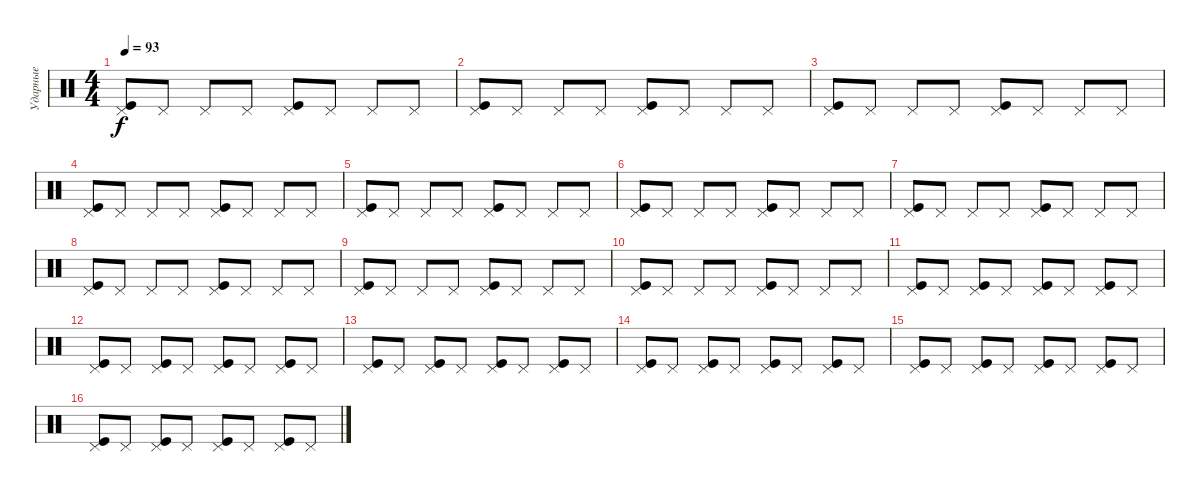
\track ("Ударные" "Ударные") {instrument percussion}
\staff {score}
\articulation defaults
\ts (4 4)
\tempo 93
\clef neutral
\ks c
("Kick (hit)" "Pedal Hi-Hat (hit)").8{dy f} "Pedal Hi-Hat (hit)".8 "Pedal Hi-Hat (hit)".8 "Pedal Hi-Hat (hit)".8 ("Kick (hit)" "Pedal Hi-Hat (hit)").8 "Pedal Hi-Hat (hit)".8 "Pedal Hi-Hat (hit)".8 "Pedal Hi-Hat (hit)".8 |
("Kick (hit)" "Pedal Hi-Hat (hit)").8 "Pedal Hi-Hat (hit)".8 "Pedal Hi-Hat (hit)".8 "Pedal Hi-Hat (hit)".8 ("Kick (hit)" "Pedal Hi-Hat (hit)").8 "Pedal Hi-Hat (hit)".8 "Pedal Hi-Hat (hit)".8 "Pedal Hi-Hat (hit)".8 |
("Kick (hit)" "Pedal Hi-Hat (hit)").8 "Pedal Hi-Hat (hit)".8 "Pedal Hi-Hat (hit)".8 "Pedal Hi-Hat (hit)".8 ("Kick (hit)" "Pedal Hi-Hat (hit)").8 "Pedal Hi-Hat (hit)".8 "Pedal Hi-Hat (hit)".8 "Pedal Hi-Hat (hit)".8 |
("Kick (hit)" "Pedal Hi-Hat (hit)").8 "Pedal Hi-Hat (hit)".8 "Pedal Hi-Hat (hit)".8 "Pedal Hi-Hat (hit)".8 ("Kick (hit)" "Pedal Hi-Hat (hit)").8 "Pedal Hi-Hat (hit)".8 "Pedal Hi-Hat (hit)".8 "Pedal Hi-Hat (hit)".8 |
("Kick (hit)" "Pedal Hi-Hat (hit)").8 "Pedal Hi-Hat (hit)".8 "Pedal Hi-Hat (hit)".8 "Pedal Hi-Hat (hit)".8 ("Kick (hit)" "Pedal Hi-Hat (hit)").8 "Pedal Hi-Hat (hit)".8 "Pedal Hi-Hat (hit)".8 "Pedal Hi-Hat (hit)".8 |
("Kick (hit)" "Pedal Hi-Hat (hit)").8 "Pedal Hi-Hat (hit)".8 "Pedal Hi-Hat (hit)".8 "Pedal Hi-Hat (hit)".8 ("Kick (hit)" "Pedal Hi-Hat (hit)").8 "Pedal Hi-Hat (hit)".8 "Pedal Hi-Hat (hit)".8 "Pedal Hi-Hat (hit)".8 |
("Kick (hit)" "Pedal Hi-Hat (hit)").8 "Pedal Hi-Hat (hit)".8 "Pedal Hi-Hat (hit)".8 "Pedal Hi-Hat (hit)".8 ("Kick (hit)" "Pedal Hi-Hat (hit)").8 "Pedal Hi-Hat (hit)".8 "Pedal Hi-Hat (hit)".8 "Pedal Hi-Hat (hit)".8 |
("Kick (hit)" "Pedal Hi-Hat (hit)").8 "Pedal Hi-Hat (hit)".8 "Pedal Hi-Hat (hit)".8 "Pedal Hi-Hat (hit)".8 ("Kick (hit)" "Pedal Hi-Hat (hit)").8 "Pedal Hi-Hat (hit)".8 "Pedal Hi-Hat (hit)".8 "Pedal Hi-Hat (hit)".8 |
("Kick (hit)" "Pedal Hi-Hat (hit)").8 "Pedal Hi-Hat (hit)".8 "Pedal Hi-Hat (hit)".8 "Pedal Hi-Hat (hit)".8 ("Kick (hit)" "Pedal Hi-Hat (hit)").8 "Pedal Hi-Hat (hit)".8 "Pedal Hi-Hat (hit)".8 "Pedal Hi-Hat (hit)".8 |
("Kick (hit)" "Pedal Hi-Hat (hit)").8 "Pedal Hi-Hat (hit)".8 "Pedal Hi-Hat (hit)".8 "Pedal Hi-Hat (hit)".8 ("Kick (hit)" "Pedal Hi-Hat (hit)").8 "Pedal Hi-Hat (hit)".8 "Pedal Hi-Hat (hit)".8 "Pedal Hi-Hat (hit)".8 |
("Kick (hit)" "Pedal Hi-Hat (hit)").8 "Pedal Hi-Hat (hit)".8 ("Kick (hit)" "Pedal Hi-Hat (hit)").8 "Pedal Hi-Hat (hit)".8 ("Kick (hit)" "Pedal Hi-Hat (hit)").8 "Pedal Hi-Hat (hit)".8 ("Kick (hit)" "Pedal Hi-Hat (hit)").8 "Pedal Hi-Hat (hit)".8 |
("Kick (hit)" "Pedal Hi-Hat (hit)").8 "Pedal Hi-Hat (hit)".8 ("Kick (hit)" "Pedal Hi-Hat (hit)").8 "Pedal Hi-Hat (hit)".8 ("Kick (hit)" "Pedal Hi-Hat (hit)").8 "Pedal Hi-Hat (hit)".8 ("Kick (hit)" "Pedal Hi-Hat (hit)").8 "Pedal Hi-Hat (hit)".8 |
("Kick (hit)" "Pedal Hi-Hat (hit)").8 "Pedal Hi-Hat (hit)".8 ("Kick (hit)" "Pedal Hi-Hat (hit)").8 "Pedal Hi-Hat (hit)".8 ("Kick (hit)" "Pedal Hi-Hat (hit)").8 "Pedal Hi-Hat (hit)".8 ("Kick (hit)" "Pedal Hi-Hat (hit)").8 "Pedal Hi-Hat (hit)".8 |
("Kick (hit)" "Pedal Hi-Hat (hit)").8 "Pedal Hi-Hat (hit)".8 ("Kick (hit)" "Pedal Hi-Hat (hit)").8 "Pedal Hi-Hat (hit)".8 ("Kick (hit)" "Pedal Hi-Hat (hit)").8 "Pedal Hi-Hat (hit)".8 ("Kick (hit)" "Pedal Hi-Hat (hit)").8 "Pedal Hi-Hat (hit)".8 |
("Kick (hit)" "Pedal Hi-Hat (hit)").8 "Pedal Hi-Hat (hit)".8 ("Kick (hit)" "Pedal Hi-Hat (hit)").8 "Pedal Hi-Hat (hit)".8 ("Kick (hit)" "Pedal Hi-Hat (hit)").8 "Pedal Hi-Hat (hit)".8 ("Kick (hit)" "Pedal Hi-Hat (hit)").8 "Pedal Hi-Hat (hit)".8 |
("Kick (hit)" "Pedal Hi-Hat (hit)").8 "Pedal Hi-Hat (hit)".8 ("Kick (hit)" "Pedal Hi-Hat (hit)").8 "Pedal Hi-Hat (hit)".8 ("Kick (hit)" "Pedal Hi-Hat (hit)").8 "Pedal Hi-Hat (hit)".8 ("Kick (hit)" "Pedal Hi-Hat (hit)").8 "Pedal Hi-Hat (hit)".8
